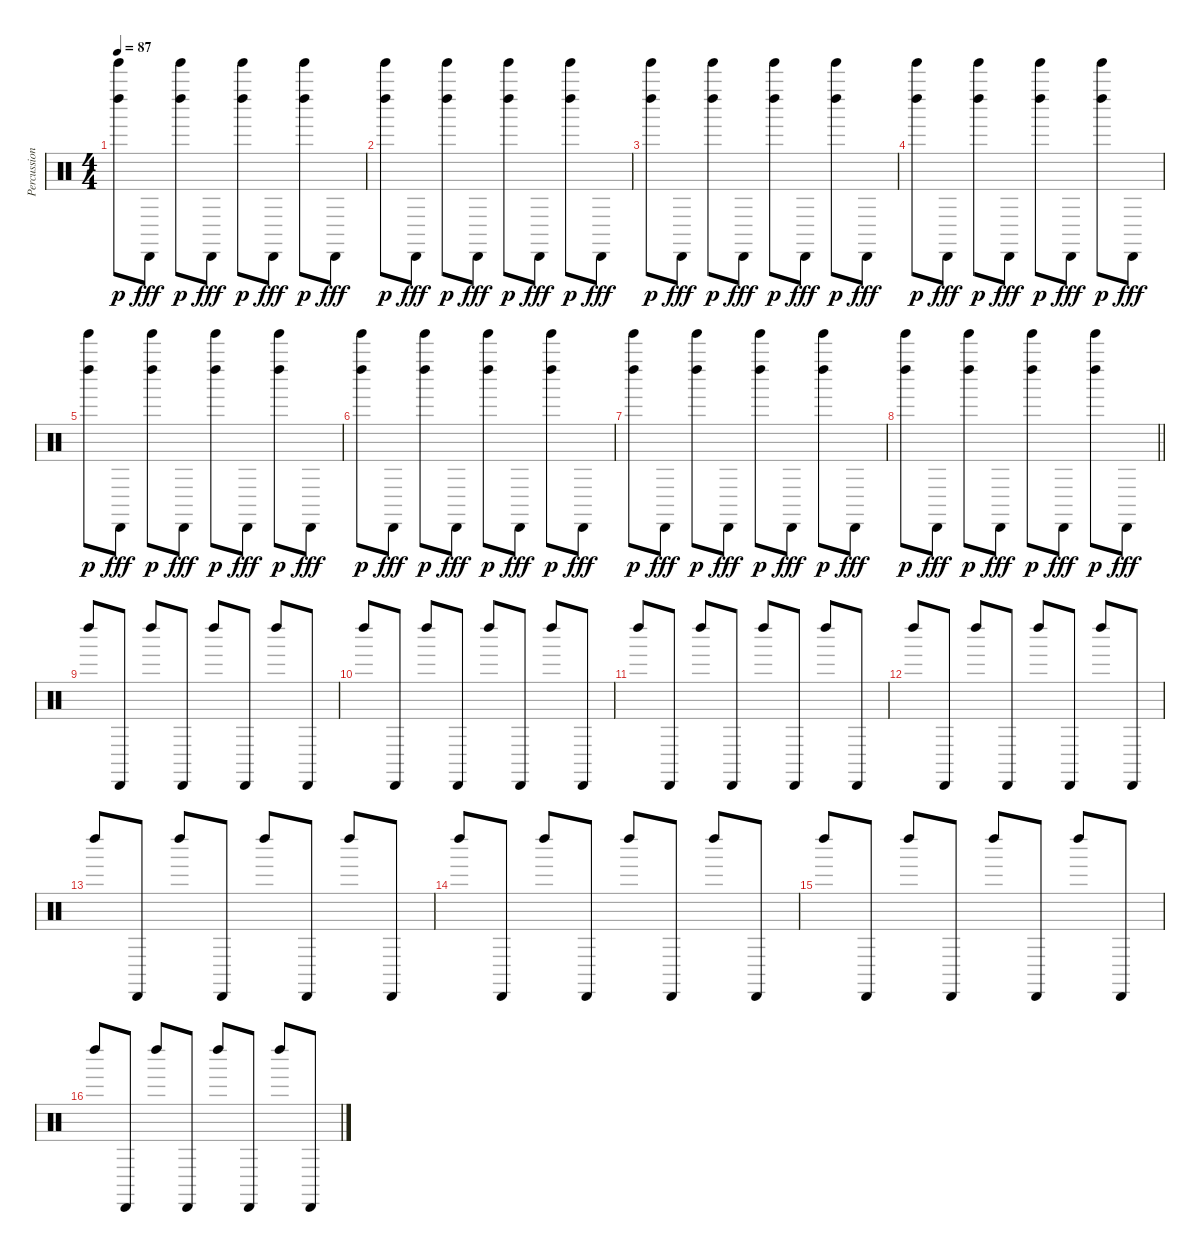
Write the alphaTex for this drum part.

\track ("Percussioni" "Percussion") {instrument percussion}
\staff {score}
\articulation defaults
\ts (4 4)
\tempo 87
\clef neutral
\ks c
("Left Maraca (hit)" "Tinkle Bell (hit)").8{dy p} "Cabasa (hit)".8{dy fff} ("Left Maraca (hit)" "Tinkle Bell (hit)").8{dy p} "Cabasa (hit)".8{dy fff} ("Left Maraca (hit)" "Tinkle Bell (hit)").8{dy p} "Cabasa (hit)".8{dy fff} ("Left Maraca (hit)" "Tinkle Bell (hit)").8{dy p} "Cabasa (hit)".8{dy fff} |
("Left Maraca (hit)" "Tinkle Bell (hit)").8{dy p} "Cabasa (hit)".8{dy fff} ("Left Maraca (hit)" "Tinkle Bell (hit)").8{dy p} "Cabasa (hit)".8{dy fff} ("Left Maraca (hit)" "Tinkle Bell (hit)").8{dy p} "Cabasa (hit)".8{dy fff} ("Left Maraca (hit)" "Tinkle Bell (hit)").8{dy p} "Cabasa (hit)".8{dy fff} |
("Left Maraca (hit)" "Tinkle Bell (hit)").8{dy p} "Cabasa (hit)".8{dy fff} ("Left Maraca (hit)" "Tinkle Bell (hit)").8{dy p} "Cabasa (hit)".8{dy fff} ("Left Maraca (hit)" "Tinkle Bell (hit)").8{dy p} "Cabasa (hit)".8{dy fff} ("Left Maraca (hit)" "Tinkle Bell (hit)").8{dy p} "Cabasa (hit)".8{dy fff} |
("Left Maraca (hit)" "Tinkle Bell (hit)").8{dy p} "Cabasa (hit)".8{dy fff} ("Left Maraca (hit)" "Tinkle Bell (hit)").8{dy p} "Cabasa (hit)".8{dy fff} ("Left Maraca (hit)" "Tinkle Bell (hit)").8{dy p} "Cabasa (hit)".8{dy fff} ("Left Maraca (hit)" "Tinkle Bell (hit)").8{dy p} "Cabasa (hit)".8{dy fff} |
("Left Maraca (hit)" "Tinkle Bell (hit)").8{dy p} "Cabasa (hit)".8{dy fff} ("Left Maraca (hit)" "Tinkle Bell (hit)").8{dy p} "Cabasa (hit)".8{dy fff} ("Left Maraca (hit)" "Tinkle Bell (hit)").8{dy p} "Cabasa (hit)".8{dy fff} ("Left Maraca (hit)" "Tinkle Bell (hit)").8{dy p} "Cabasa (hit)".8{dy fff} |
("Left Maraca (hit)" "Tinkle Bell (hit)").8{dy p} "Cabasa (hit)".8{dy fff} ("Left Maraca (hit)" "Tinkle Bell (hit)").8{dy p} "Cabasa (hit)".8{dy fff} ("Left Maraca (hit)" "Tinkle Bell (hit)").8{dy p} "Cabasa (hit)".8{dy fff} ("Left Maraca (hit)" "Tinkle Bell (hit)").8{dy p} "Cabasa (hit)".8{dy fff} |
("Left Maraca (hit)" "Tinkle Bell (hit)").8{dy p} "Cabasa (hit)".8{dy fff} ("Left Maraca (hit)" "Tinkle Bell (hit)").8{dy p} "Cabasa (hit)".8{dy fff} ("Left Maraca (hit)" "Tinkle Bell (hit)").8{dy p} "Cabasa (hit)".8{dy fff} ("Left Maraca (hit)" "Tinkle Bell (hit)").8{dy p} "Cabasa (hit)".8{dy fff} |
\barLineRight lightlight
("Left Maraca (hit)" "Tinkle Bell (hit)").8{dy p} "Cabasa (hit)".8{dy fff} ("Left Maraca (hit)" "Tinkle Bell (hit)").8{dy p} "Cabasa (hit)".8{dy fff} ("Left Maraca (hit)" "Tinkle Bell (hit)").8{dy p} "Cabasa (hit)".8{dy fff} ("Left Maraca (hit)" "Tinkle Bell (hit)").8{dy p} "Cabasa (hit)".8{dy fff} |
"Left Maraca (hit)".8 "Cabasa (hit)".8 "Left Maraca (hit)".8 "Cabasa (hit)".8 "Left Maraca (hit)".8 "Cabasa (hit)".8 "Left Maraca (hit)".8 "Cabasa (hit)".8 |
"Left Maraca (hit)".8 "Cabasa (hit)".8 "Left Maraca (hit)".8 "Cabasa (hit)".8 "Left Maraca (hit)".8 "Cabasa (hit)".8 "Left Maraca (hit)".8 "Cabasa (hit)".8 |
"Left Maraca (hit)".8 "Cabasa (hit)".8 "Left Maraca (hit)".8 "Cabasa (hit)".8 "Left Maraca (hit)".8 "Cabasa (hit)".8 "Left Maraca (hit)".8 "Cabasa (hit)".8 |
"Left Maraca (hit)".8 "Cabasa (hit)".8 "Left Maraca (hit)".8 "Cabasa (hit)".8 "Left Maraca (hit)".8 "Cabasa (hit)".8 "Left Maraca (hit)".8 "Cabasa (hit)".8 |
"Left Maraca (hit)".8 "Cabasa (hit)".8 "Left Maraca (hit)".8 "Cabasa (hit)".8 "Left Maraca (hit)".8 "Cabasa (hit)".8 "Left Maraca (hit)".8 "Cabasa (hit)".8 |
"Left Maraca (hit)".8 "Cabasa (hit)".8 "Left Maraca (hit)".8 "Cabasa (hit)".8 "Left Maraca (hit)".8 "Cabasa (hit)".8 "Left Maraca (hit)".8 "Cabasa (hit)".8 |
"Left Maraca (hit)".8 "Cabasa (hit)".8 "Left Maraca (hit)".8 "Cabasa (hit)".8 "Left Maraca (hit)".8 "Cabasa (hit)".8 "Left Maraca (hit)".8 "Cabasa (hit)".8 |
"Left Maraca (hit)".8 "Cabasa (hit)".8 "Left Maraca (hit)".8 "Cabasa (hit)".8 "Left Maraca (hit)".8 "Cabasa (hit)".8 "Left Maraca (hit)".8 "Cabasa (hit)".8
